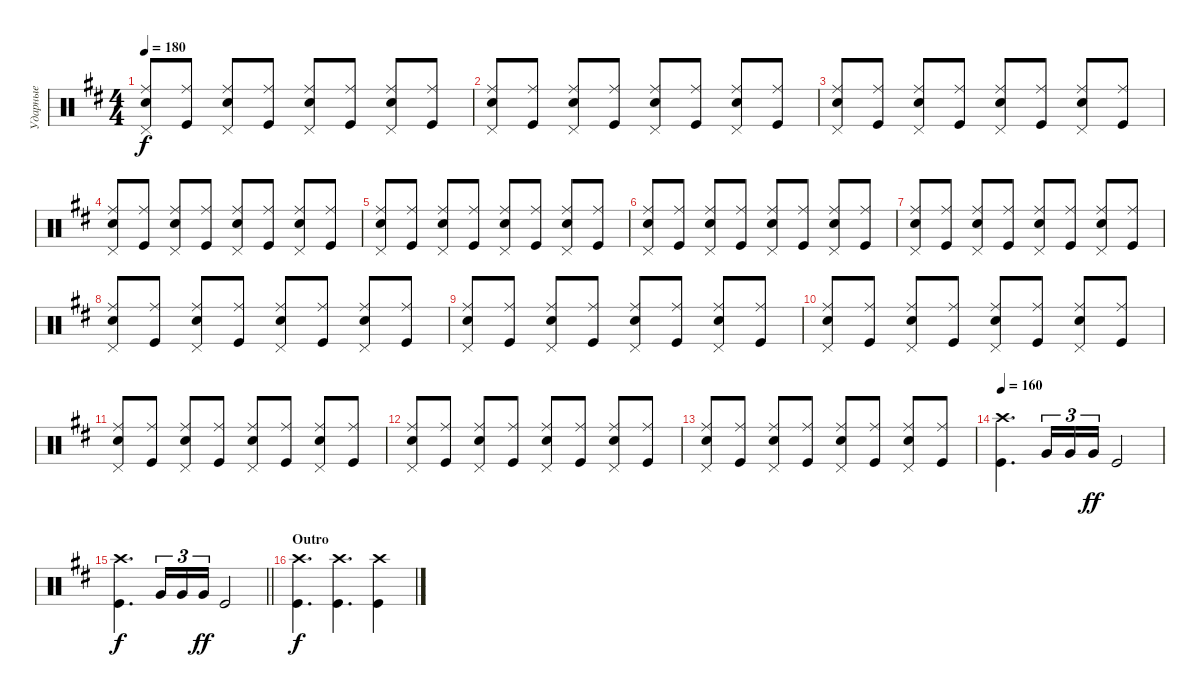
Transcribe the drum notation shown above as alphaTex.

\track ("Ударные" "Ударные") {instrument percussion}
\staff {score}
\articulation defaults
\ts (4 4)
\tempo 180
\clef neutral
\ks bminor
("Ride (middle)" "Snare (hit) 2" "Pedal Hi-Hat (hit)").8{dy f} ("Kick (hit)" "Ride (middle)").8 ("Pedal Hi-Hat (hit)" "Snare (hit) 2" "Ride (middle)").8 ("Kick (hit)" "Ride (middle)").8 ("Pedal Hi-Hat (hit)" "Snare (hit) 2" "Ride (middle)").8 ("Kick (hit)" "Ride (middle)").8 ("Pedal Hi-Hat (hit)" "Snare (hit) 2" "Ride (middle)").8 ("Kick (hit)" "Ride (middle)").8 |
("Ride (middle)" "Snare (hit) 2" "Pedal Hi-Hat (hit)").8 ("Kick (hit)" "Ride (middle)").8 ("Pedal Hi-Hat (hit)" "Snare (hit) 2" "Ride (middle)").8 ("Kick (hit)" "Ride (middle)").8 ("Pedal Hi-Hat (hit)" "Snare (hit) 2" "Ride (middle)").8 ("Kick (hit)" "Ride (middle)").8 ("Pedal Hi-Hat (hit)" "Snare (hit) 2" "Ride (middle)").8 ("Kick (hit)" "Ride (middle)").8 |
("Ride (middle)" "Snare (hit) 2" "Pedal Hi-Hat (hit)").8 ("Kick (hit)" "Ride (middle)").8 ("Pedal Hi-Hat (hit)" "Snare (hit) 2" "Ride (middle)").8 ("Kick (hit)" "Ride (middle)").8 ("Pedal Hi-Hat (hit)" "Snare (hit) 2" "Ride (middle)").8 ("Kick (hit)" "Ride (middle)").8 ("Pedal Hi-Hat (hit)" "Snare (hit) 2" "Ride (middle)").8 ("Kick (hit)" "Ride (middle)").8 |
("Ride (middle)" "Snare (hit) 2" "Pedal Hi-Hat (hit)").8 ("Kick (hit)" "Ride (middle)").8 ("Pedal Hi-Hat (hit)" "Snare (hit) 2" "Ride (middle)").8 ("Kick (hit)" "Ride (middle)").8 ("Pedal Hi-Hat (hit)" "Snare (hit) 2" "Ride (middle)").8 ("Kick (hit)" "Ride (middle)").8 ("Pedal Hi-Hat (hit)" "Snare (hit) 2" "Ride (middle)").8 ("Kick (hit)" "Ride (middle)").8 |
("Ride (middle)" "Snare (hit) 2" "Pedal Hi-Hat (hit)").8 ("Kick (hit)" "Ride (middle)").8 ("Pedal Hi-Hat (hit)" "Snare (hit) 2" "Ride (middle)").8 ("Kick (hit)" "Ride (middle)").8 ("Pedal Hi-Hat (hit)" "Snare (hit) 2" "Ride (middle)").8 ("Kick (hit)" "Ride (middle)").8 ("Pedal Hi-Hat (hit)" "Snare (hit) 2" "Ride (middle)").8 ("Kick (hit)" "Ride (middle)").8 |
("Ride (middle)" "Snare (hit) 2" "Pedal Hi-Hat (hit)").8 ("Kick (hit)" "Ride (middle)").8 ("Pedal Hi-Hat (hit)" "Snare (hit) 2" "Ride (middle)").8 ("Kick (hit)" "Ride (middle)").8 ("Pedal Hi-Hat (hit)" "Snare (hit) 2" "Ride (middle)").8 ("Kick (hit)" "Ride (middle)").8 ("Pedal Hi-Hat (hit)" "Snare (hit) 2" "Ride (middle)").8 ("Kick (hit)" "Ride (middle)").8 |
("Ride (middle)" "Snare (hit) 2" "Pedal Hi-Hat (hit)").8 ("Kick (hit)" "Ride (middle)").8 ("Pedal Hi-Hat (hit)" "Snare (hit) 2" "Ride (middle)").8 ("Kick (hit)" "Ride (middle)").8 ("Pedal Hi-Hat (hit)" "Snare (hit) 2" "Ride (middle)").8 ("Kick (hit)" "Ride (middle)").8 ("Pedal Hi-Hat (hit)" "Snare (hit) 2" "Ride (middle)").8 ("Kick (hit)" "Ride (middle)").8 |
("Ride (middle)" "Snare (hit) 2" "Pedal Hi-Hat (hit)").8 ("Kick (hit)" "Ride (middle)").8 ("Pedal Hi-Hat (hit)" "Snare (hit) 2" "Ride (middle)").8 ("Kick (hit)" "Ride (middle)").8 ("Pedal Hi-Hat (hit)" "Snare (hit) 2" "Ride (middle)").8 ("Kick (hit)" "Ride (middle)").8 ("Pedal Hi-Hat (hit)" "Snare (hit) 2" "Ride (middle)").8 ("Kick (hit)" "Ride (middle)").8 |
("Ride (middle)" "Snare (hit) 2" "Pedal Hi-Hat (hit)").8 ("Kick (hit)" "Ride (middle)").8 ("Pedal Hi-Hat (hit)" "Snare (hit) 2" "Ride (middle)").8 ("Kick (hit)" "Ride (middle)").8 ("Pedal Hi-Hat (hit)" "Snare (hit) 2" "Ride (middle)").8 ("Kick (hit)" "Ride (middle)").8 ("Pedal Hi-Hat (hit)" "Snare (hit) 2" "Ride (middle)").8 ("Kick (hit)" "Ride (middle)").8 |
("Ride (middle)" "Snare (hit) 2" "Pedal Hi-Hat (hit)").8 ("Kick (hit)" "Ride (middle)").8 ("Pedal Hi-Hat (hit)" "Snare (hit) 2" "Ride (middle)").8 ("Kick (hit)" "Ride (middle)").8 ("Pedal Hi-Hat (hit)" "Snare (hit) 2" "Ride (middle)").8 ("Kick (hit)" "Ride (middle)").8 ("Pedal Hi-Hat (hit)" "Snare (hit) 2" "Ride (middle)").8 ("Kick (hit)" "Ride (middle)").8 |
("Ride (middle)" "Snare (hit) 2" "Pedal Hi-Hat (hit)").8 ("Kick (hit)" "Ride (middle)").8 ("Pedal Hi-Hat (hit)" "Snare (hit) 2" "Ride (middle)").8 ("Kick (hit)" "Ride (middle)").8 ("Pedal Hi-Hat (hit)" "Snare (hit) 2" "Ride (middle)").8 ("Kick (hit)" "Ride (middle)").8 ("Pedal Hi-Hat (hit)" "Snare (hit) 2" "Ride (middle)").8 ("Kick (hit)" "Ride (middle)").8 |
("Ride (middle)" "Snare (hit) 2" "Pedal Hi-Hat (hit)").8 ("Kick (hit)" "Ride (middle)").8 ("Pedal Hi-Hat (hit)" "Snare (hit) 2" "Ride (middle)").8 ("Kick (hit)" "Ride (middle)").8 ("Pedal Hi-Hat (hit)" "Snare (hit) 2" "Ride (middle)").8 ("Kick (hit)" "Ride (middle)").8 ("Pedal Hi-Hat (hit)" "Snare (hit) 2" "Ride (middle)").8 ("Kick (hit)" "Ride (middle)").8 |
("Ride (middle)" "Snare (hit) 2" "Pedal Hi-Hat (hit)").8 ("Kick (hit)" "Ride (middle)").8 ("Pedal Hi-Hat (hit)" "Snare (hit) 2" "Ride (middle)").8 ("Kick (hit)" "Ride (middle)").8 ("Pedal Hi-Hat (hit)" "Snare (hit) 2" "Ride (middle)").8 ("Kick (hit)" "Ride (middle)").8 ("Pedal Hi-Hat (hit)" "Snare (hit) 2" "Ride (middle)").8 ("Kick (hit)" "Ride (middle)").8 |
\tempo 160
("Kick (hit)" "Crash high (hit)").4{d} "Very Low Tom (hit)".16{tu (3 2)} "Very Low Tom (hit)".16{tu (3 2)} "Very Low Tom (hit)".16{tu (3 2) dy ff} "Kick (hit)".2 |
\barLineRight lightlight
("Kick (hit)" "Crash high (hit)").4{d dy f} "Very Low Tom (hit)".16{tu (3 2)} "Very Low Tom (hit)".16{tu (3 2)} "Very Low Tom (hit)".16{tu (3 2) dy ff} "Kick (hit)".2 |
\section ("" "Outro")
("Kick (hit)" "Crash high (hit)").4{d dy f} ("Kick (hit)" "Crash high (hit)").4{d} ("Kick (hit)" "Crash high (hit)").4
